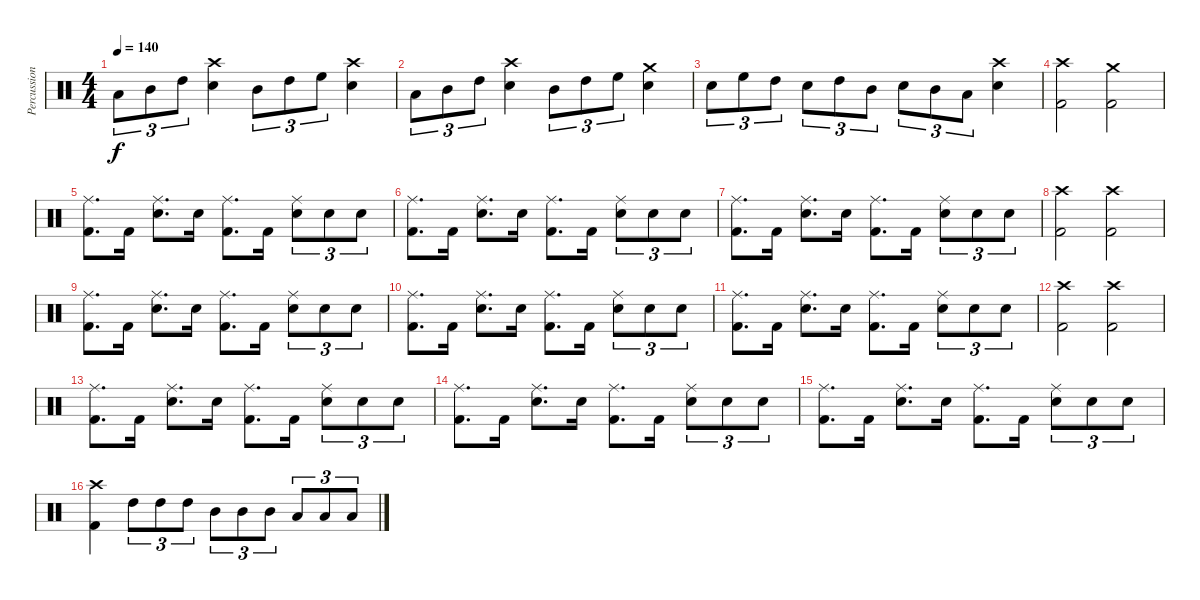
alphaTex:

\track ("Percussion" "Percussion") {instrument percussion}
\staff {score}
\articulation defaults
\ts (4 4)
\tempo 140
\clef neutral
\ks c "Low Tom (hit)".8{tu (3 2) dy f} "Mid Tom (hit)".8{tu (3 2)} "High Tom (hit)".8{tu (3 2)}
("Electric Snare (hit)" "Crash high (hit)").4 "Mid Tom (hit)".8{tu (3 2)} "High Tom (hit)".8{tu (3 2)} "High Floor Tom (hit)".8{tu (3 2)} ("Electric Snare (hit)" "Crash high (hit)").4 |
"Low Tom (hit)".8{tu (3 2)} "Mid Tom (hit)".8{tu (3 2)} "High Tom (hit)".8{tu (3 2)} ("Electric Snare (hit)" "Crash high (hit)").4 "Mid Tom (hit)".8{tu (3 2)} "High Tom (hit)".8{tu (3 2)} "High Floor Tom (hit)".8{tu (3 2)} ("Electric Snare (hit)" "Crash medium (hit)").4 |
"Electric Snare (hit)".8{tu (3 2)} "High Floor Tom (hit)".8{tu (3 2)} "High Tom (hit)".8{tu (3 2)} "Snare (hit) 2".8{tu (3 2)} "High Tom (hit)".8{tu (3 2)} "Mid Tom (hit)".8{tu (3 2)} "Electric Snare (hit)".8{tu (3 2)} "Mid Tom (hit)".8{tu (3 2)} "Low Tom (hit)".8{tu (3 2)} ("Electric Snare (hit)" "Crash high (hit)").4 |
("Kick (hit) 2" "Crash high (hit)").2 ("Kick (hit) 2" "Crash medium (hit)").2 |
("Kick (hit) 2" "Ride (middle)").8{d} "Kick (hit) 2".16 ("Electric Snare (hit)" "Ride (middle)").8{d} "Electric Snare (hit)".16 ("Kick (hit) 2" "Ride (middle)").8{d} "Kick (hit) 2".16 ("Electric Snare (hit)" "Ride (middle)").8{tu (3 2)} "Electric Snare (hit)".8{tu (3 2)} "Electric Snare (hit)".8{tu (3 2)} |
("Kick (hit) 2" "Ride (middle)").8{d} "Kick (hit) 2".16 ("Electric Snare (hit)" "Ride (middle)").8{d} "Electric Snare (hit)".16 ("Kick (hit) 2" "Ride (middle)").8{d} "Kick (hit) 2".16 ("Electric Snare (hit)" "Ride (middle)").8{tu (3 2)} "Electric Snare (hit)".8{tu (3 2)} "Electric Snare (hit)".8{tu (3 2)} |
("Kick (hit) 2" "Ride (middle)").8{d} "Kick (hit) 2".16 ("Electric Snare (hit)" "Ride (middle)").8{d} "Electric Snare (hit)".16 ("Kick (hit) 2" "Ride (middle)").8{d} "Kick (hit) 2".16 ("Electric Snare (hit)" "Ride (middle)").8{tu (3 2)} "Electric Snare (hit)".8{tu (3 2)} "Electric Snare (hit)".8{tu (3 2)} |
("Kick (hit) 2" "Crash high (hit)").2 ("Kick (hit) 2" "Crash high (hit)").2 |
("Kick (hit) 2" "Ride (middle)").8{d} "Kick (hit) 2".16 ("Electric Snare (hit)" "Ride (middle)").8{d} "Electric Snare (hit)".16 ("Kick (hit) 2" "Ride (middle)").8{d} "Kick (hit) 2".16 ("Electric Snare (hit)" "Ride (middle)").8{tu (3 2)} "Electric Snare (hit)".8{tu (3 2)} "Electric Snare (hit)".8{tu (3 2)} |
("Kick (hit) 2" "Ride (middle)").8{d} "Kick (hit) 2".16 ("Electric Snare (hit)" "Ride (middle)").8{d} "Electric Snare (hit)".16 ("Kick (hit) 2" "Ride (middle)").8{d} "Kick (hit) 2".16 ("Electric Snare (hit)" "Ride (middle)").8{tu (3 2)} "Electric Snare (hit)".8{tu (3 2)} "Electric Snare (hit)".8{tu (3 2)} |
("Kick (hit) 2" "Ride (middle)").8{d} "Kick (hit) 2".16 ("Electric Snare (hit)" "Ride (middle)").8{d} "Electric Snare (hit)".16 ("Kick (hit) 2" "Ride (middle)").8{d} "Kick (hit) 2".16 ("Electric Snare (hit)" "Ride (middle)").8{tu (3 2)} "Electric Snare (hit)".8{tu (3 2)} "Electric Snare (hit)".8{tu (3 2)} |
("Kick (hit) 2" "Crash high (hit)").2 ("Kick (hit) 2" "Crash high (hit)").2 |
("Kick (hit) 2" "Ride (middle)").8{d} "Kick (hit) 2".16 ("Electric Snare (hit)" "Ride (middle)").8{d} "Electric Snare (hit)".16 ("Kick (hit) 2" "Ride (middle)").8{d} "Kick (hit) 2".16 ("Electric Snare (hit)" "Ride (middle)").8{tu (3 2)} "Electric Snare (hit)".8{tu (3 2)} "Electric Snare (hit)".8{tu (3 2)} |
("Kick (hit) 2" "Ride (middle)").8{d} "Kick (hit) 2".16 ("Electric Snare (hit)" "Ride (middle)").8{d} "Electric Snare (hit)".16 ("Kick (hit) 2" "Ride (middle)").8{d} "Kick (hit) 2".16 ("Electric Snare (hit)" "Ride (middle)").8{tu (3 2)} "Electric Snare (hit)".8{tu (3 2)} "Electric Snare (hit)".8{tu (3 2)} |
("Kick (hit) 2" "Ride (middle)").8{d} "Kick (hit) 2".16 ("Electric Snare (hit)" "Ride (middle)").8{d} "Electric Snare (hit)".16 ("Kick (hit) 2" "Ride (middle)").8{d} "Kick (hit) 2".16 ("Electric Snare (hit)" "Ride (middle)").8{tu (3 2)} "Electric Snare (hit)".8{tu (3 2)} "Electric Snare (hit)".8{tu (3 2)} |
("Kick (hit) 2" "Crash high (hit)").4 "High Tom (hit)".8{tu (3 2)} "High Tom (hit)".8{tu (3 2)} "High Tom (hit)".8{tu (3 2)} "Mid Tom (hit)".8{tu (3 2)} "Mid Tom (hit)".8{tu (3 2)} "Mid Tom (hit)".8{tu (3 2)} "Low Tom (hit)".8{tu (3 2)} "Low Tom (hit)".8{tu (3 2)} "Low Tom (hit)".8{tu (3 2)}
